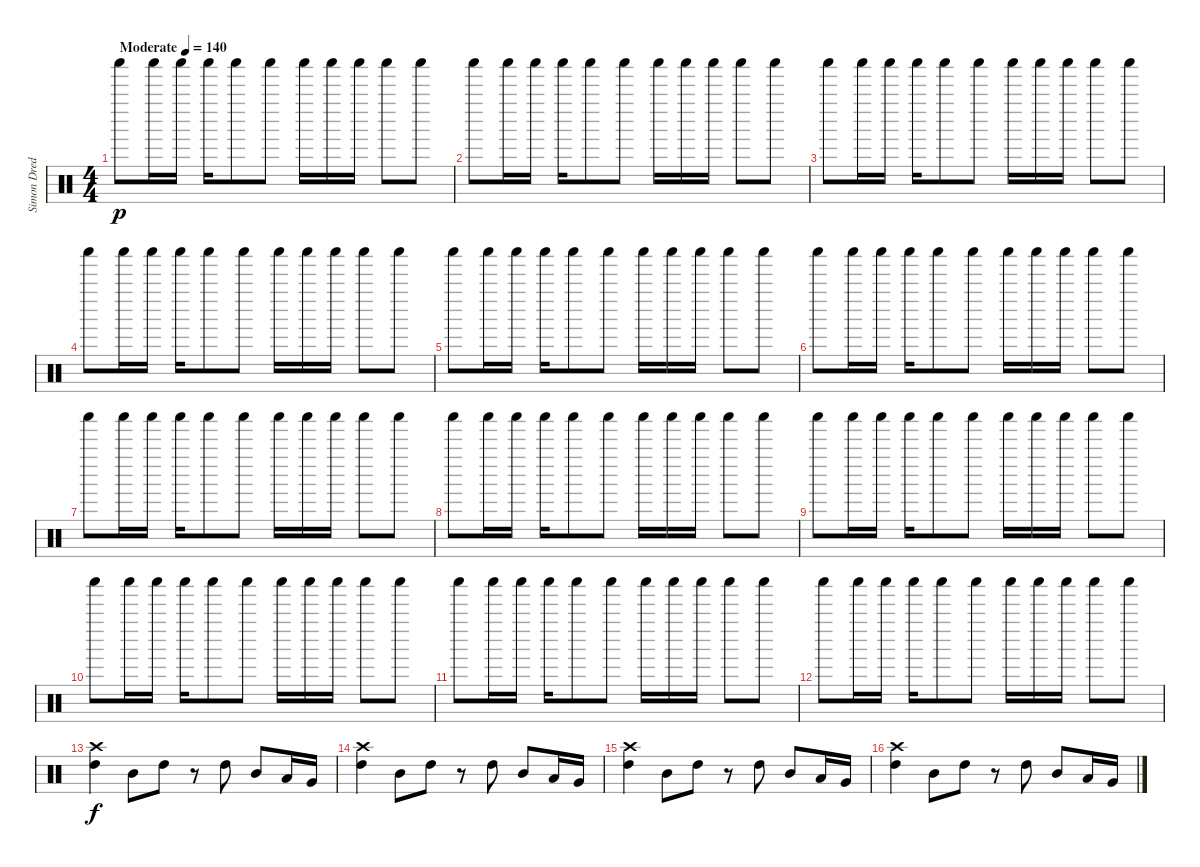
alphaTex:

\track ("Simon Dredo" "Simon Dred") {instrument percussion}
\staff {score}
\articulation defaults
\ts (4 4)
\tempo (140 "Moderate")
\clef neutral
\ks c "Shaker (hit)".8{dy p} "Shaker (hit)".16 "Shaker (hit)".16 "Shaker (hit)".16 "Shaker (hit)".8 "Shaker (hit)".8 "Shaker (hit)".16 "Shaker (hit)".16 "Shaker (hit)".16 "Shaker (hit)".8 "Shaker (hit)".8
|
"Shaker (hit)".8 "Shaker (hit)".16 "Shaker (hit)".16 "Shaker (hit)".16 "Shaker (hit)".8 "Shaker (hit)".8 "Shaker (hit)".16 "Shaker (hit)".16 "Shaker (hit)".16 "Shaker (hit)".8 "Shaker (hit)".8 |
"Shaker (hit)".8 "Shaker (hit)".16 "Shaker (hit)".16 "Shaker (hit)".16 "Shaker (hit)".8 "Shaker (hit)".8 "Shaker (hit)".16 "Shaker (hit)".16 "Shaker (hit)".16 "Shaker (hit)".8 "Shaker (hit)".8 |
"Shaker (hit)".8 "Shaker (hit)".16 "Shaker (hit)".16 "Shaker (hit)".16 "Shaker (hit)".8 "Shaker (hit)".8 "Shaker (hit)".16 "Shaker (hit)".16 "Shaker (hit)".16 "Shaker (hit)".8 "Shaker (hit)".8 |
"Shaker (hit)".8 "Shaker (hit)".16 "Shaker (hit)".16 "Shaker (hit)".16 "Shaker (hit)".8 "Shaker (hit)".8 "Shaker (hit)".16 "Shaker (hit)".16 "Shaker (hit)".16 "Shaker (hit)".8 "Shaker (hit)".8 |
"Shaker (hit)".8 "Shaker (hit)".16 "Shaker (hit)".16 "Shaker (hit)".16 "Shaker (hit)".8 "Shaker (hit)".8 "Shaker (hit)".16 "Shaker (hit)".16 "Shaker (hit)".16 "Shaker (hit)".8 "Shaker (hit)".8 |
"Shaker (hit)".8 "Shaker (hit)".16 "Shaker (hit)".16 "Shaker (hit)".16 "Shaker (hit)".8 "Shaker (hit)".8 "Shaker (hit)".16 "Shaker (hit)".16 "Shaker (hit)".16 "Shaker (hit)".8 "Shaker (hit)".8 |
"Shaker (hit)".8 "Shaker (hit)".16 "Shaker (hit)".16 "Shaker (hit)".16 "Shaker (hit)".8 "Shaker (hit)".8 "Shaker (hit)".16 "Shaker (hit)".16 "Shaker (hit)".16 "Shaker (hit)".8 "Shaker (hit)".8 |
"Shaker (hit)".8 "Shaker (hit)".16 "Shaker (hit)".16 "Shaker (hit)".16 "Shaker (hit)".8 "Shaker (hit)".8 "Shaker (hit)".16 "Shaker (hit)".16 "Shaker (hit)".16 "Shaker (hit)".8 "Shaker (hit)".8 |
"Shaker (hit)".8 "Shaker (hit)".16 "Shaker (hit)".16 "Shaker (hit)".16 "Shaker (hit)".8 "Shaker (hit)".8 "Shaker (hit)".16 "Shaker (hit)".16 "Shaker (hit)".16 "Shaker (hit)".8 "Shaker (hit)".8 |
"Shaker (hit)".8 "Shaker (hit)".16 "Shaker (hit)".16 "Shaker (hit)".16 "Shaker (hit)".8 "Shaker (hit)".8 "Shaker (hit)".16 "Shaker (hit)".16 "Shaker (hit)".16 "Shaker (hit)".8 "Shaker (hit)".8 |
"Shaker (hit)".8 "Shaker (hit)".16 "Shaker (hit)".16 "Shaker (hit)".16 "Shaker (hit)".8 "Shaker (hit)".8 "Shaker (hit)".16 "Shaker (hit)".16 "Shaker (hit)".16 "Shaker (hit)".8 "Shaker (hit)".8 |
("Crash high (hit)" "High Tom (hit)").4{dy f} "Mid Tom (hit)".8 "High Tom (hit)".8 r.8 "High Tom (hit)".8 "Mid Tom (hit)".8 "Low Tom (hit)".16 "Very Low Tom (hit)".16 |
("Crash high (hit)" "High Tom (hit)").4 "Mid Tom (hit)".8 "High Tom (hit)".8 r.8 "High Tom (hit)".8 "Mid Tom (hit)".8 "Low Tom (hit)".16 "Very Low Tom (hit)".16 |
("Crash high (hit)" "High Tom (hit)").4 "Mid Tom (hit)".8 "High Tom (hit)".8 r.8 "High Tom (hit)".8 "Mid Tom (hit)".8 "Low Tom (hit)".16 "Very Low Tom (hit)".16 |
("Crash high (hit)" "High Tom (hit)").4 "Mid Tom (hit)".8 "High Tom (hit)".8 r.8 "High Tom (hit)".8 "Mid Tom (hit)".8 "Low Tom (hit)".16 "Very Low Tom (hit)".16
